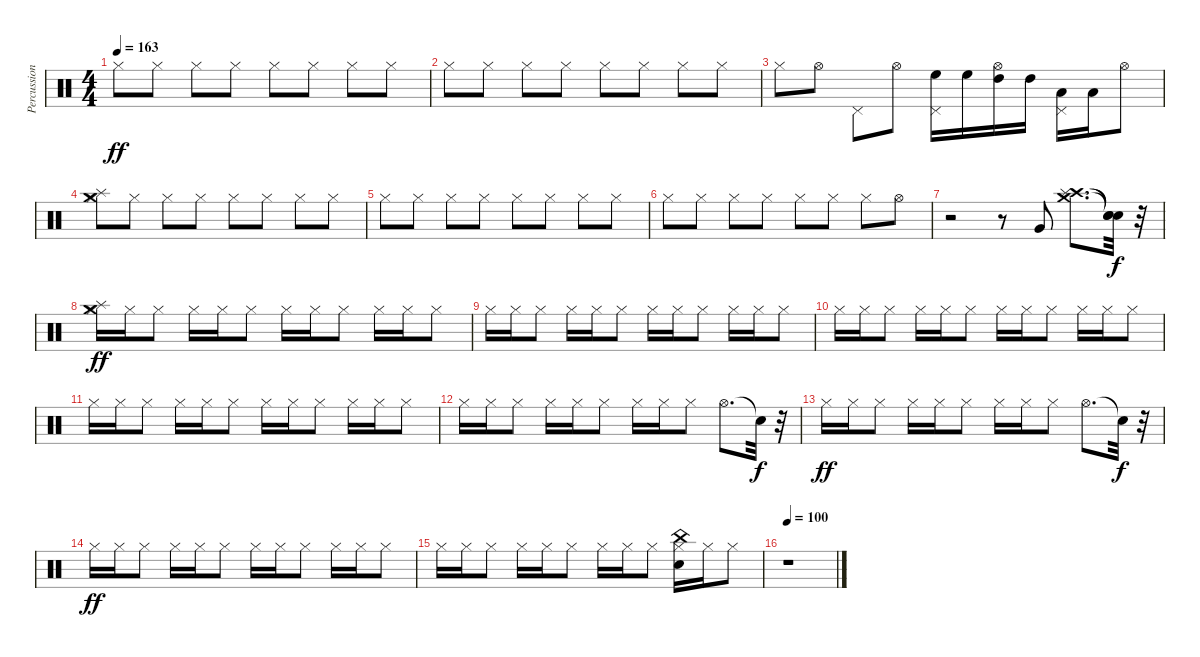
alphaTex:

\track ("Percussion (Standard Kit)" "Percussion") {instrument percussion}
\staff {score}
\articulation defaults
\ts (4 4)
\tempo 163
\clef neutral
\ks c "Hi-Hat (closed)".8{dy ff} "Hi-Hat (closed)".8 "Hi-Hat (closed)".8 "Hi-Hat (closed)".8 "Hi-Hat (closed)".8 "Hi-Hat (closed)".8 "Hi-Hat (closed)".8 "Hi-Hat (closed)".8
|
"Hi-Hat (closed)".8 "Hi-Hat (closed)".8 "Hi-Hat (closed)".8 "Hi-Hat (closed)".8 "Hi-Hat (closed)".8 "Hi-Hat (closed)".8 "Hi-Hat (closed)".8 "Hi-Hat (closed)".8 |
"Hi-Hat (closed)".8 "Hi-Hat (open)".8 "Pedal Hi-Hat (hit)".8 "Hi-Hat (open)".8 ("Pedal Hi-Hat (hit)" "High Floor Tom (hit)").16 "High Floor Tom (hit)".16 ("Hi-Hat (open)" "High Tom (hit)").16 "High Tom (hit)".16 ("Pedal Hi-Hat (hit)" "Low Tom (hit)").16 "Low Tom (hit)".16 "Hi-Hat (open)".8 |
("Hi-Hat (closed)" "Splash (hit)" "Crash medium (hit)").8 "Hi-Hat (closed)".8 "Hi-Hat (closed)".8 "Hi-Hat (closed)".8 "Hi-Hat (closed)".8 "Hi-Hat (closed)".8 "Hi-Hat (closed)".8 "Hi-Hat (closed)".8 |
"Hi-Hat (closed)".8 "Hi-Hat (closed)".8 "Hi-Hat (closed)".8 "Hi-Hat (closed)".8 "Hi-Hat (closed)".8 "Hi-Hat (closed)".8 "Hi-Hat (closed)".8 "Hi-Hat (closed)".8 |
"Hi-Hat (closed)".8 "Hi-Hat (closed)".8 "Hi-Hat (closed)".8 "Hi-Hat (closed)".8 "Hi-Hat (closed)".8 "Hi-Hat (closed)".8 "Hi-Hat (closed)".8 "Hi-Hat (open)".8 |
r.2 r.8 "Very Low Tom (hit)".8 ("Crash high (hit)" "Splash (hit)" "Crash medium (hit)").8{d} ("Snare (hit)"{t} "Snare (hit)"{t} "Snare (hit)"{t}).32{dy f} r.32 |
("Hi-Hat (closed)" "Splash (hit)" "Crash medium (hit)").16{dy ff} "Hi-Hat (closed)".16 "Hi-Hat (closed)".8 "Hi-Hat (closed)".16 "Hi-Hat (closed)".16 "Hi-Hat (closed)".8 "Hi-Hat (closed)".16 "Hi-Hat (closed)".16 "Hi-Hat (closed)".8 "Hi-Hat (closed)".16 "Hi-Hat (closed)".16 "Hi-Hat (closed)".8 |
"Hi-Hat (closed)".16 "Hi-Hat (closed)".16 "Hi-Hat (closed)".8 "Hi-Hat (closed)".16 "Hi-Hat (closed)".16 "Hi-Hat (closed)".8 "Hi-Hat (closed)".16 "Hi-Hat (closed)".16 "Hi-Hat (closed)".8 "Hi-Hat (closed)".16 "Hi-Hat (closed)".16 "Hi-Hat (closed)".8 |
"Hi-Hat (closed)".16 "Hi-Hat (closed)".16 "Hi-Hat (closed)".8 "Hi-Hat (closed)".16 "Hi-Hat (closed)".16 "Hi-Hat (closed)".8 "Hi-Hat (closed)".16 "Hi-Hat (closed)".16 "Hi-Hat (closed)".8 "Hi-Hat (closed)".16 "Hi-Hat (closed)".16 "Hi-Hat (closed)".8 |
"Hi-Hat (closed)".16 "Hi-Hat (closed)".16 "Hi-Hat (closed)".8 "Hi-Hat (closed)".16 "Hi-Hat (closed)".16 "Hi-Hat (closed)".8 "Hi-Hat (closed)".16 "Hi-Hat (closed)".16 "Hi-Hat (closed)".8 "Hi-Hat (closed)".16 "Hi-Hat (closed)".16 "Hi-Hat (closed)".8 |
"Hi-Hat (closed)".16 "Hi-Hat (closed)".16 "Hi-Hat (closed)".8 "Hi-Hat (closed)".16 "Hi-Hat (closed)".16 "Hi-Hat (closed)".8 "Hi-Hat (closed)".16 "Hi-Hat (closed)".16 "Hi-Hat (closed)".8 "Hi-Hat (open)".8{d} "Snare (hit)"{t}.32{dy f} r.32 |
"Hi-Hat (closed)".16{dy ff} "Hi-Hat (closed)".16 "Hi-Hat (closed)".8 "Hi-Hat (closed)".16 "Hi-Hat (closed)".16 "Hi-Hat (closed)".8 "Hi-Hat (closed)".16 "Hi-Hat (closed)".16 "Hi-Hat (closed)".8 "Hi-Hat (open)".8{d} "Snare (hit)"{t}.32{dy f} r.32 |
"Hi-Hat (closed)".16{dy ff} "Hi-Hat (closed)".16 "Hi-Hat (closed)".8 "Hi-Hat (closed)".16 "Hi-Hat (closed)".16 "Hi-Hat (closed)".8 "Hi-Hat (closed)".16 "Hi-Hat (closed)".16 "Hi-Hat (closed)".8 "Hi-Hat (closed)".16 "Hi-Hat (closed)".16 "Hi-Hat (closed)".8 |
"Hi-Hat (closed)".16 "Hi-Hat (closed)".16 "Hi-Hat (closed)".8 "Hi-Hat (closed)".16 "Hi-Hat (closed)".16 "Hi-Hat (closed)".8 "Hi-Hat (closed)".16 "Hi-Hat (closed)".16 "Hi-Hat (closed)".8 ("Electric Snare (hit)" "Hi-Hat (closed)" "China (hit)").16 "Hi-Hat (closed)".16 "Hi-Hat (closed)".8 |
\tempo 100
r.1
